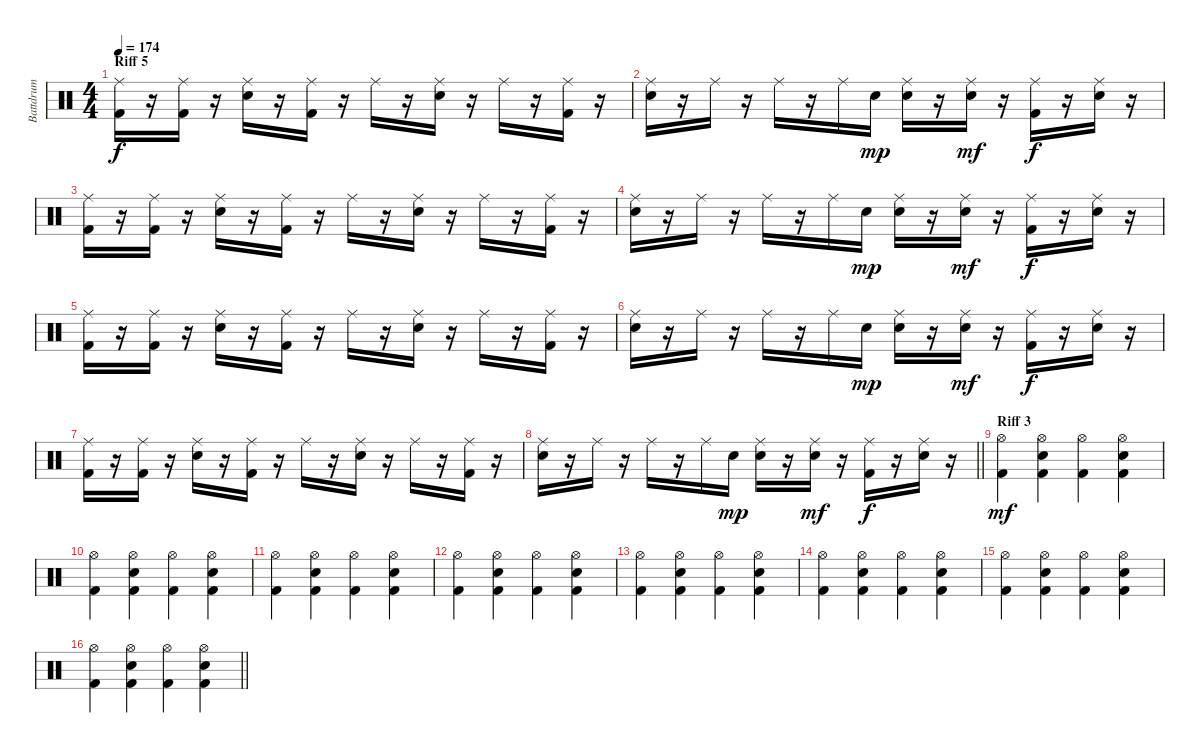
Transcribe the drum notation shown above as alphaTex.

\track ("Battdrum" "Battdrum") {instrument percussion}
\staff {score}
\articulation defaults
\ts (4 4)
\section ("" "Riff 5")
\tempo 174
\clef neutral
\ks c
("Kick (hit) 2" "Ride (middle)").16{dy f} r.16 ("Kick (hit) 2" "Ride (middle)").16 r.16 ("Snare (hit) 2" "Ride (middle)").16 r.16 ("Kick (hit) 2" "Ride (middle)").16 r.16 "Ride (middle)".16 r.16 ("Snare (hit) 2" "Ride (middle)").16 r.16 "Ride (middle)".16 r.16 ("Kick (hit) 2" "Ride (middle)").16 r.16 |
("Snare (hit) 2" "Ride (middle)").16 r.16 "Ride (middle)".16 r.16 "Ride (middle)".16 r.16 "Ride (middle)".16 "Snare (hit) 2".16{dy mp} ("Snare (hit) 2" "Ride (middle)").16 r.16 ("Snare (hit) 2" "Ride (middle)").16{dy mf} r.16 ("Kick (hit) 2" "Ride (middle)").16{dy f} r.16 ("Snare (hit) 2" "Ride (middle)").16 r.16 |
("Kick (hit) 2" "Ride (middle)").16 r.16 ("Kick (hit) 2" "Ride (middle)").16 r.16 ("Snare (hit) 2" "Ride (middle)").16 r.16 ("Kick (hit) 2" "Ride (middle)").16 r.16 "Ride (middle)".16 r.16 ("Snare (hit) 2" "Ride (middle)").16 r.16 "Ride (middle)".16 r.16 ("Kick (hit) 2" "Ride (middle)").16 r.16 |
("Snare (hit) 2" "Ride (middle)").16 r.16 "Ride (middle)".16 r.16 "Ride (middle)".16 r.16 "Ride (middle)".16 "Snare (hit) 2".16{dy mp} ("Snare (hit) 2" "Ride (middle)").16 r.16 ("Snare (hit) 2" "Ride (middle)").16{dy mf} r.16 ("Kick (hit) 2" "Ride (middle)").16{dy f} r.16 ("Snare (hit) 2" "Ride (middle)").16 r.16 |
("Kick (hit) 2" "Ride (middle)").16 r.16 ("Kick (hit) 2" "Ride (middle)").16 r.16 ("Snare (hit) 2" "Ride (middle)").16 r.16 ("Kick (hit) 2" "Ride (middle)").16 r.16 "Ride (middle)".16 r.16 ("Snare (hit) 2" "Ride (middle)").16 r.16 "Ride (middle)".16 r.16 ("Kick (hit) 2" "Ride (middle)").16 r.16 |
("Snare (hit) 2" "Ride (middle)").16 r.16 "Ride (middle)".16 r.16 "Ride (middle)".16 r.16 "Ride (middle)".16 "Snare (hit) 2".16{dy mp} ("Snare (hit) 2" "Ride (middle)").16 r.16 ("Snare (hit) 2" "Ride (middle)").16{dy mf} r.16 ("Kick (hit) 2" "Ride (middle)").16{dy f} r.16 ("Snare (hit) 2" "Ride (middle)").16 r.16 |
("Kick (hit) 2" "Ride (middle)").16 r.16 ("Kick (hit) 2" "Ride (middle)").16 r.16 ("Snare (hit) 2" "Ride (middle)").16 r.16 ("Kick (hit) 2" "Ride (middle)").16 r.16 "Ride (middle)".16 r.16 ("Snare (hit) 2" "Ride (middle)").16 r.16 "Ride (middle)".16 r.16 ("Kick (hit) 2" "Ride (middle)").16 r.16 |
\barLineRight lightlight
("Snare (hit) 2" "Ride (middle)").16 r.16 "Ride (middle)".16 r.16 "Ride (middle)".16 r.16 "Ride (middle)".16 "Snare (hit) 2".16{dy mp} ("Snare (hit) 2" "Ride (middle)").16 r.16 ("Snare (hit) 2" "Ride (middle)").16{dy mf} r.16 ("Kick (hit) 2" "Ride (middle)").16{dy f} r.16 ("Snare (hit) 2" "Ride (middle)").16 r.16 |
\section ("" "Riff 3")
("Kick (hit) 2" "Hi-Hat (open)").4{dy mf} ("Kick (hit) 2" "Snare (hit) 2" "Hi-Hat (open)").4 ("Kick (hit) 2" "Hi-Hat (open)").4 ("Kick (hit) 2" "Snare (hit) 2" "Hi-Hat (open)").4 |
("Kick (hit) 2" "Hi-Hat (open)").4 ("Kick (hit) 2" "Snare (hit) 2" "Hi-Hat (open)").4 ("Kick (hit) 2" "Hi-Hat (open)").4 ("Kick (hit) 2" "Snare (hit) 2" "Hi-Hat (open)").4 |
("Kick (hit) 2" "Hi-Hat (open)").4 ("Kick (hit) 2" "Snare (hit) 2" "Hi-Hat (open)").4 ("Kick (hit) 2" "Hi-Hat (open)").4 ("Kick (hit) 2" "Snare (hit) 2" "Hi-Hat (open)").4 |
("Kick (hit) 2" "Hi-Hat (open)").4 ("Kick (hit) 2" "Snare (hit) 2" "Hi-Hat (open)").4 ("Kick (hit) 2" "Hi-Hat (open)").4 ("Kick (hit) 2" "Snare (hit) 2" "Hi-Hat (open)").4 |
("Kick (hit) 2" "Hi-Hat (open)").4 ("Kick (hit) 2" "Snare (hit) 2" "Hi-Hat (open)").4 ("Kick (hit) 2" "Hi-Hat (open)").4 ("Kick (hit) 2" "Snare (hit) 2" "Hi-Hat (open)").4 |
("Kick (hit) 2" "Hi-Hat (open)").4 ("Kick (hit) 2" "Snare (hit) 2" "Hi-Hat (open)").4 ("Kick (hit) 2" "Hi-Hat (open)").4 ("Kick (hit) 2" "Snare (hit) 2" "Hi-Hat (open)").4 |
("Kick (hit) 2" "Hi-Hat (open)").4 ("Kick (hit) 2" "Snare (hit) 2" "Hi-Hat (open)").4 ("Kick (hit) 2" "Hi-Hat (open)").4 ("Kick (hit) 2" "Snare (hit) 2" "Hi-Hat (open)").4 |
\barLineRight lightlight
("Kick (hit) 2" "Hi-Hat (open)").4 ("Kick (hit) 2" "Snare (hit) 2" "Hi-Hat (open)").4 ("Kick (hit) 2" "Hi-Hat (open)").4 ("Kick (hit) 2" "Snare (hit) 2" "Hi-Hat (open)").4
